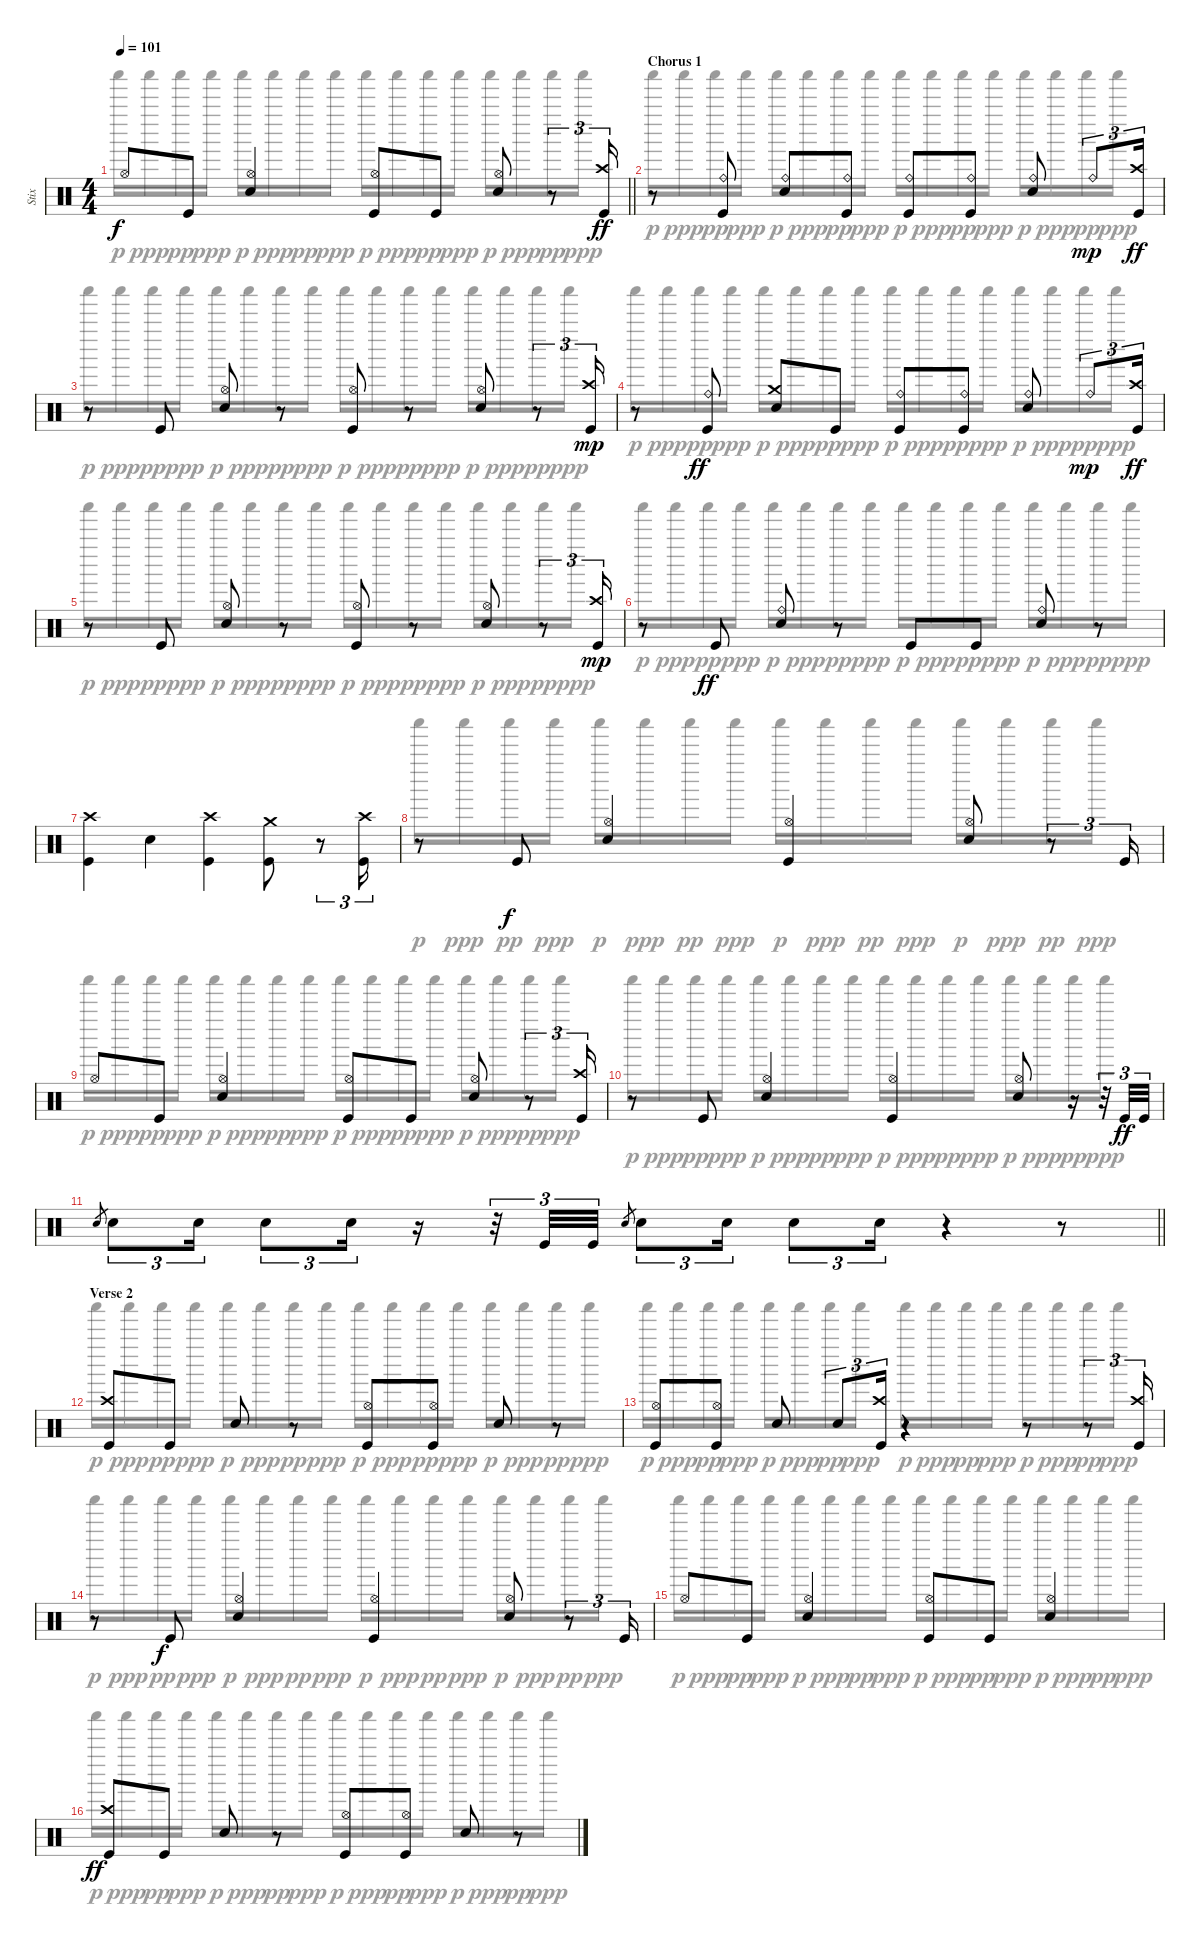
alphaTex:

\track ("Stix" "Stix") {instrument percussion}
\staff {score}
\articulation defaults
\voice
\ts (4 4)
\tempo 101
\clef neutral
\barLineRight lightlight
\ks c "Hi-Hat (open)".8{dy f} "Kick (hit)".8
("Hi-Hat (open)" "Electric Snare (hit)").4 ("Hi-Hat (open)" "Kick (hit)").8 "Kick (hit)".8 ("Hi-Hat (open)" "Electric Snare (hit)").8 r.8{tu (3 2)} ("Crash high (hit)" "Kick (hit)").16{tu (3 2) dy ff} |
\section ("" "Chorus 1")
r.8 ("Ride (bell)" "Kick (hit)").8 ("Ride (bell)" "Electric Snare (hit)").8 ("Ride (bell)" "Kick (hit)").8 ("Ride (bell)" "Kick (hit)").8 ("Ride (bell)" "Kick (hit)").8 ("Ride (bell)" "Electric Snare (hit)").8 "Ride (bell)".8{tu (3 2) dy mp} ("Crash high (hit)" "Kick (hit)").16{tu (3 2) dy ff} |
r.8 "Kick (hit)".8 ("Hi-Hat (open)" "Electric Snare (hit)").8 r.8 ("Hi-Hat (open)" "Kick (hit)").8 r.8 ("Hi-Hat (open)" "Electric Snare (hit)").8 r.8{tu (3 2)} ("Crash high (hit)" "Kick (hit)").16{tu (3 2) dy mp} |
r.8 ("Ride (bell)" "Kick (hit)").8{dy ff} ("Crash medium (hit)" "Electric Snare (hit)").8 "Kick (hit)".8 ("Ride (bell)" "Kick (hit)").8 ("Ride (bell)" "Kick (hit)").8 ("Ride (bell)" "Electric Snare (hit)").8 "Ride (bell)".8{tu (3 2) dy mp} ("Crash high (hit)" "Kick (hit)").16{tu (3 2) dy ff} |
r.8 "Kick (hit)".8 ("Hi-Hat (open)" "Electric Snare (hit)").8 r.8 ("Hi-Hat (open)" "Kick (hit)").8 r.8 ("Hi-Hat (open)" "Electric Snare (hit)").8 r.8{tu (3 2)} ("Crash high (hit)" "Kick (hit)").16{tu (3 2) dy mp} |
r.8 "Kick (hit)".8{dy ff} ("Ride (bell)" "Electric Snare (hit)").8 r.8 "Kick (hit)".8 "Kick (hit)".8 ("Ride (bell)" "Electric Snare (hit)").8 r.8 |
("Crash high (hit)" "Kick (hit)").4 "Electric Snare (hit)".4 ("Crash high (hit)" "Kick (hit)").4 ("Crash medium (hit)" "Kick (hit)").8 r.8{tu (3 2)} ("Crash high (hit)" "Kick (hit)").16{tu (3 2)} |
r.8 "Kick (hit)".8{dy f} ("Hi-Hat (open)" "Electric Snare (hit)").4 ("Hi-Hat (open)" "Kick (hit)").4 ("Hi-Hat (open)" "Electric Snare (hit)").8 r.8{tu (3 2)} "Kick (hit)".16{tu (3 2)} |
"Hi-Hat (open)".8 "Kick (hit)".8 ("Hi-Hat (open)" "Electric Snare (hit)").4 ("Hi-Hat (open)" "Kick (hit)").8 "Kick (hit)".8 ("Hi-Hat (open)" "Electric Snare (hit)").8 r.8{tu (3 2)} ("Crash high (hit)" "Kick (hit)").16{tu (3 2)} |
r.8 "Kick (hit)".8 ("Hi-Hat (open)" "Electric Snare (hit)").4 ("Hi-Hat (open)" "Kick (hit)").4 ("Hi-Hat (open)" "Electric Snare (hit)").8 r.16 r.32{tu (3 2)} "Kick (hit)".32{tu (3 2) dy ff} "Kick (hit)".32{tu (3 2)} |
\barLineRight lightlight "Snare (hit)".8{gr} "Electric Snare (hit)".8{tu (3 2)} "Electric Snare (hit)".16{tu (3 2)} "Electric Snare (hit)".8{tu (3 2)} "Electric Snare (hit)".16{tu (3 2)}
r.16 r.32{tu (3 2)} "Kick (hit)".32{tu (3 2)} "Kick (hit)".32{tu (3 2)} "Electric Snare (hit)".8{gr} "Electric Snare (hit)".8{tu (3 2)} "Electric Snare (hit)".16{tu (3 2)} "Electric Snare (hit)".8{tu (3 2)} "Electric Snare (hit)".16{tu (3 2)} r.4 r.8 |
\section ("" "Verse 2")
("Crash high (hit)" "Kick (hit)").8 "Kick (hit)".8 "Electric Snare (hit)".8 r.8 ("Hi-Hat (open)" "Kick (hit)").8 ("Hi-Hat (open)" "Kick (hit)").8 "Electric Snare (hit)".8 r.8 |
("Hi-Hat (open)" "Kick (hit)").8 ("Hi-Hat (open)" "Kick (hit)").8 "Electric Snare (hit)".8 "Electric Snare (hit)".8{tu (3 2)} ("Crash high (hit)" "Kick (hit)").16{tu (3 2)} r.4 r.8 r.8{tu (3 2)} ("Crash high (hit)" "Kick (hit)").16{tu (3 2)} |
r.8 "Kick (hit)".8{dy f} ("Hi-Hat (open)" "Electric Snare (hit)").4 ("Hi-Hat (open)" "Kick (hit)").4 ("Hi-Hat (open)" "Electric Snare (hit)").8 r.8{tu (3 2)} "Kick (hit)".16{tu (3 2)} |
"Hi-Hat (open)".8 "Kick (hit)".8 ("Hi-Hat (open)" "Electric Snare (hit)").4 ("Hi-Hat (open)" "Kick (hit)").8 "Kick (hit)".8 ("Hi-Hat (open)" "Electric Snare (hit)").4 |
("Crash high (hit)" "Kick (hit)").8{dy ff} "Kick (hit)".8 "Electric Snare (hit)".8 r.8 ("Hi-Hat (open)" "Kick (hit)").8 ("Hi-Hat (open)" "Kick (hit)").8 "Electric Snare (hit)".8 r.8
\voice
\clef neutral
\ottava regular
\simile none
\barLineRight lightlight
\ks c "Shaker (hit)".16{dy p} "Shaker (hit)".16{dy ppp} "Shaker (hit)".16{dy pp} "Shaker (hit)".16{dy ppp} "Shaker (hit)".16{dy p} "Shaker (hit)".16{dy ppp} "Shaker (hit)".16{dy pp} "Shaker (hit)".16{dy ppp} "Shaker (hit)".16{dy p} "Shaker (hit)".16{dy ppp} "Shaker (hit)".16{dy pp} "Shaker (hit)".16{dy ppp} "Shaker (hit)".16{dy p} "Shaker (hit)".16{dy ppp} "Shaker (hit)".16{dy pp} "Shaker (hit)".16{dy ppp}
|
"Shaker (hit)".16{dy p} "Shaker (hit)".16{dy ppp} "Shaker (hit)".16{dy pp} "Shaker (hit)".16{dy ppp} "Shaker (hit)".16{dy p} "Shaker (hit)".16{dy ppp} "Shaker (hit)".16{dy pp} "Shaker (hit)".16{dy ppp} "Shaker (hit)".16{dy p} "Shaker (hit)".16{dy ppp} "Shaker (hit)".16{dy pp} "Shaker (hit)".16{dy ppp} "Shaker (hit)".16{dy p} "Shaker (hit)".16{dy ppp} "Shaker (hit)".16{dy pp} "Shaker (hit)".16{dy ppp} |
"Shaker (hit)".16{dy p} "Shaker (hit)".16{dy ppp} "Shaker (hit)".16{dy pp} "Shaker (hit)".16{dy ppp} "Shaker (hit)".16{dy p} "Shaker (hit)".16{dy ppp} "Shaker (hit)".16{dy pp} "Shaker (hit)".16{dy ppp} "Shaker (hit)".16{dy p} "Shaker (hit)".16{dy ppp} "Shaker (hit)".16{dy pp} "Shaker (hit)".16{dy ppp} "Shaker (hit)".16{dy p} "Shaker (hit)".16{dy ppp} "Shaker (hit)".16{dy pp} "Shaker (hit)".16{dy ppp} |
"Shaker (hit)".16{dy p} "Shaker (hit)".16{dy ppp} "Shaker (hit)".16{dy pp} "Shaker (hit)".16{dy ppp} "Shaker (hit)".16{dy p} "Shaker (hit)".16{dy ppp} "Shaker (hit)".16{dy pp} "Shaker (hit)".16{dy ppp} "Shaker (hit)".16{dy p} "Shaker (hit)".16{dy ppp} "Shaker (hit)".16{dy pp} "Shaker (hit)".16{dy ppp} "Shaker (hit)".16{dy p} "Shaker (hit)".16{dy ppp} "Shaker (hit)".16{dy pp} "Shaker (hit)".16{dy ppp} |
"Shaker (hit)".16{dy p} "Shaker (hit)".16{dy ppp} "Shaker (hit)".16{dy pp} "Shaker (hit)".16{dy ppp} "Shaker (hit)".16{dy p} "Shaker (hit)".16{dy ppp} "Shaker (hit)".16{dy pp} "Shaker (hit)".16{dy ppp} "Shaker (hit)".16{dy p} "Shaker (hit)".16{dy ppp} "Shaker (hit)".16{dy pp} "Shaker (hit)".16{dy ppp} "Shaker (hit)".16{dy p} "Shaker (hit)".16{dy ppp} "Shaker (hit)".16{dy pp} "Shaker (hit)".16{dy ppp} |
"Shaker (hit)".16{dy p} "Shaker (hit)".16{dy ppp} "Shaker (hit)".16{dy pp} "Shaker (hit)".16{dy ppp} "Shaker (hit)".16{dy p} "Shaker (hit)".16{dy ppp} "Shaker (hit)".16{dy pp} "Shaker (hit)".16{dy ppp} "Shaker (hit)".16{dy p} "Shaker (hit)".16{dy ppp} "Shaker (hit)".16{dy pp} "Shaker (hit)".16{dy ppp} "Shaker (hit)".16{dy p} "Shaker (hit)".16{dy ppp} "Shaker (hit)".16{dy pp} "Shaker (hit)".16{dy ppp} |
|
"Shaker (hit)".16{dy p} "Shaker (hit)".16{dy ppp} "Shaker (hit)".16{dy pp} "Shaker (hit)".16{dy ppp} "Shaker (hit)".16{dy p} "Shaker (hit)".16{dy ppp} "Shaker (hit)".16{dy pp} "Shaker (hit)".16{dy ppp} "Shaker (hit)".16{dy p} "Shaker (hit)".16{dy ppp} "Shaker (hit)".16{dy pp} "Shaker (hit)".16{dy ppp} "Shaker (hit)".16{dy p} "Shaker (hit)".16{dy ppp} "Shaker (hit)".16{dy pp} "Shaker (hit)".16{dy ppp} |
"Shaker (hit)".16{dy p} "Shaker (hit)".16{dy ppp} "Shaker (hit)".16{dy pp} "Shaker (hit)".16{dy ppp} "Shaker (hit)".16{dy p} "Shaker (hit)".16{dy ppp} "Shaker (hit)".16{dy pp} "Shaker (hit)".16{dy ppp} "Shaker (hit)".16{dy p} "Shaker (hit)".16{dy ppp} "Shaker (hit)".16{dy pp} "Shaker (hit)".16{dy ppp} "Shaker (hit)".16{dy p} "Shaker (hit)".16{dy ppp} "Shaker (hit)".16{dy pp} "Shaker (hit)".16{dy ppp} |
"Shaker (hit)".16{dy p} "Shaker (hit)".16{dy ppp} "Shaker (hit)".16{dy pp} "Shaker (hit)".16{dy ppp} "Shaker (hit)".16{dy p} "Shaker (hit)".16{dy ppp} "Shaker (hit)".16{dy pp} "Shaker (hit)".16{dy ppp} "Shaker (hit)".16{dy p} "Shaker (hit)".16{dy ppp} "Shaker (hit)".16{dy pp} "Shaker (hit)".16{dy ppp} "Shaker (hit)".16{dy p} "Shaker (hit)".16{dy ppp} "Shaker (hit)".16{dy pp} "Shaker (hit)".16{dy ppp} |
\barLineRight lightlight
|
"Shaker (hit)".16{dy p} "Shaker (hit)".16{dy ppp} "Shaker (hit)".16{dy pp} "Shaker (hit)".16{dy ppp} "Shaker (hit)".16{dy p} "Shaker (hit)".16{dy ppp} "Shaker (hit)".16{dy pp} "Shaker (hit)".16{dy ppp} "Shaker (hit)".16{dy p} "Shaker (hit)".16{dy ppp} "Shaker (hit)".16{dy pp} "Shaker (hit)".16{dy ppp} "Shaker (hit)".16{dy p} "Shaker (hit)".16{dy ppp} "Shaker (hit)".16{dy pp} "Shaker (hit)".16{dy ppp} |
"Shaker (hit)".16{dy p} "Shaker (hit)".16{dy ppp} "Shaker (hit)".16{dy pp} "Shaker (hit)".16{dy ppp} "Shaker (hit)".16{dy p} "Shaker (hit)".16{dy ppp} "Shaker (hit)".16{dy pp} "Shaker (hit)".16{dy ppp} "Shaker (hit)".16{dy p} "Shaker (hit)".16{dy ppp} "Shaker (hit)".16{dy pp} "Shaker (hit)".16{dy ppp} "Shaker (hit)".16{dy p} "Shaker (hit)".16{dy ppp} "Shaker (hit)".16{dy pp} "Shaker (hit)".16{dy ppp} |
"Shaker (hit)".16{dy p} "Shaker (hit)".16{dy ppp} "Shaker (hit)".16{dy pp} "Shaker (hit)".16{dy ppp} "Shaker (hit)".16{dy p} "Shaker (hit)".16{dy ppp} "Shaker (hit)".16{dy pp} "Shaker (hit)".16{dy ppp} "Shaker (hit)".16{dy p} "Shaker (hit)".16{dy ppp} "Shaker (hit)".16{dy pp} "Shaker (hit)".16{dy ppp} "Shaker (hit)".16{dy p} "Shaker (hit)".16{dy ppp} "Shaker (hit)".16{dy pp} "Shaker (hit)".16{dy ppp} |
"Shaker (hit)".16{dy p} "Shaker (hit)".16{dy ppp} "Shaker (hit)".16{dy pp} "Shaker (hit)".16{dy ppp} "Shaker (hit)".16{dy p} "Shaker (hit)".16{dy ppp} "Shaker (hit)".16{dy pp} "Shaker (hit)".16{dy ppp} "Shaker (hit)".16{dy p} "Shaker (hit)".16{dy ppp} "Shaker (hit)".16{dy pp} "Shaker (hit)".16{dy ppp} "Shaker (hit)".16{dy p} "Shaker (hit)".16{dy ppp} "Shaker (hit)".16{dy pp} "Shaker (hit)".16{dy ppp} |
"Shaker (hit)".16{dy p} "Shaker (hit)".16{dy ppp} "Shaker (hit)".16{dy pp} "Shaker (hit)".16{dy ppp} "Shaker (hit)".16{dy p} "Shaker (hit)".16{dy ppp} "Shaker (hit)".16{dy pp} "Shaker (hit)".16{dy ppp} "Shaker (hit)".16{dy p} "Shaker (hit)".16{dy ppp} "Shaker (hit)".16{dy pp} "Shaker (hit)".16{dy ppp} "Shaker (hit)".16{dy p} "Shaker (hit)".16{dy ppp} "Shaker (hit)".16{dy pp} "Shaker (hit)".16{dy ppp}
